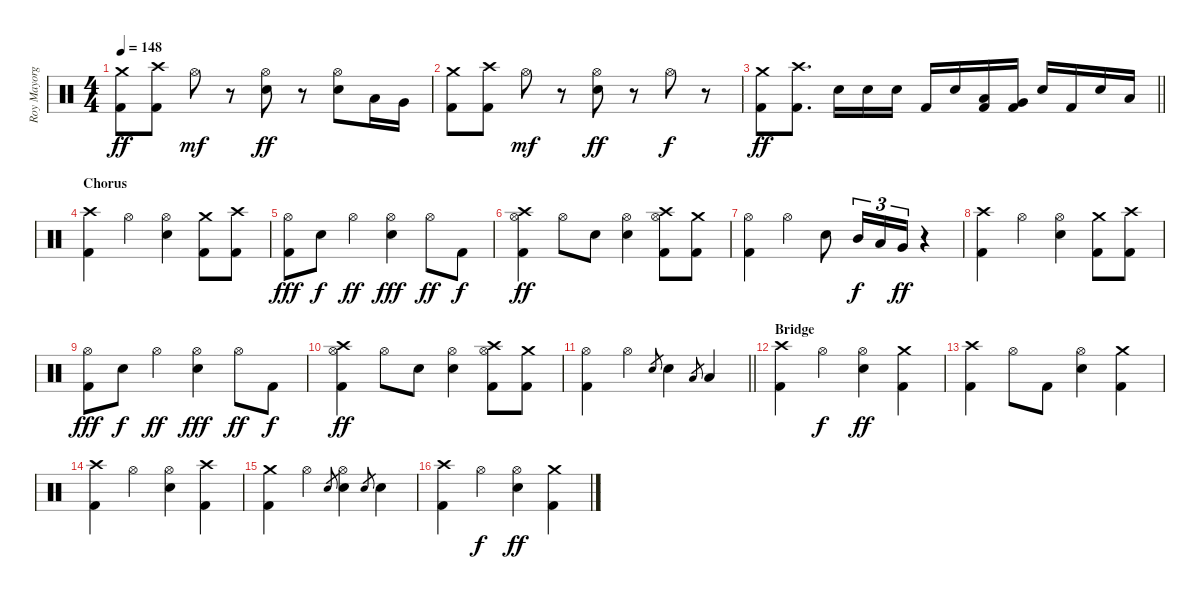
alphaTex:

\track ("Roy Mayorga (Drums)" "Roy Mayorg") {instrument percussion}
\staff {score}
\articulation defaults
\ts (4 4)
\tempo 148
\clef neutral
\ks c
("Crash medium (hit)" "Kick (hit) 2").8{dy ff} ("Crash high (hit)" "Kick (hit) 2").8 "Hi-Hat (open)".8{dy mf} r.8 ("Hi-Hat (open)" "Electric Snare (hit)").8{dy ff} r.8 ("Hi-Hat (open)" "Electric Snare (hit)").8 "Low Tom (hit)".16 "Very Low Tom (hit)".16 |
("Crash medium (hit)" "Kick (hit) 2").8 ("Crash high (hit)" "Kick (hit) 2").8 "Hi-Hat (open)".8{dy mf} r.8 ("Hi-Hat (open)" "Electric Snare (hit)").8{dy ff} r.8 "Hi-Hat (open)".8{dy f} r.8 |
\barLineRight lightlight
("Crash medium (hit)" "Kick (hit) 2").8{dy ff} ("Crash high (hit)" "Kick (hit) 2").8{d} "Electric Snare (hit)".16 "Electric Snare (hit)".16 "Electric Snare (hit)".16 "Kick (hit) 2".16 "Electric Snare (hit)".16 ("Low Tom (hit)" "Kick (hit) 2").16 ("Very Low Tom (hit)" "Kick (hit) 2").16 "Electric Snare (hit)".16 "Kick (hit) 2".16 "Electric Snare (hit)".16 "Low Tom (hit)".16 |
\section ("" "Chorus")
("Crash high (hit)" "Kick (hit) 2").4 "Hi-Hat (open)".4 ("Hi-Hat (open)" "Electric Snare (hit)").4 ("Crash medium (hit)" "Kick (hit) 2").8 ("Crash high (hit)" "Kick (hit) 2").8 |
("Hi-Hat (open)" "Kick (hit) 2").8{dy fff} "Electric Snare (hit)".8{dy f} "Hi-Hat (open)".4{dy ff} ("Hi-Hat (open)" "Electric Snare (hit)").4{dy fff} "Hi-Hat (open)".8{dy ff} "Kick (hit) 2".8{dy f} |
("Crash high (hit)" "Hi-Hat (open)" "Kick (hit) 2").4{dy ff} "Hi-Hat (open)".8 "Electric Snare (hit)".8 ("Hi-Hat (open)" "Electric Snare (hit)").4 ("Crash high (hit)" "Hi-Hat (open)" "Kick (hit) 2").8 ("Crash medium (hit)" "Kick (hit) 2").8 |
("Hi-Hat (open)" "Kick (hit) 2").4 "Hi-Hat (open)".4 "Electric Snare (hit)".8 "Mid Tom (hit)".16{tu (3 2) dy f} "Low Tom (hit)".16{tu (3 2)} "Very Low Tom (hit)".16{tu (3 2) dy ff} r.4 |
("Crash high (hit)" "Kick (hit) 2").4 "Hi-Hat (open)".4 ("Hi-Hat (open)" "Electric Snare (hit)").4 ("Crash medium (hit)" "Kick (hit) 2").8 ("Crash high (hit)" "Kick (hit) 2").8 |
("Hi-Hat (open)" "Kick (hit) 2").8{dy fff} "Electric Snare (hit)".8{dy f} "Hi-Hat (open)".4{dy ff} ("Hi-Hat (open)" "Electric Snare (hit)").4{dy fff} "Hi-Hat (open)".8{dy ff} "Kick (hit) 2".8{dy f} |
("Crash high (hit)" "Hi-Hat (open)" "Kick (hit) 2").4{dy ff} "Hi-Hat (open)".8 "Electric Snare (hit)".8 ("Hi-Hat (open)" "Electric Snare (hit)").4 ("Crash high (hit)" "Hi-Hat (open)" "Kick (hit) 2").8 ("Crash medium (hit)" "Kick (hit) 2").8 |
\barLineRight lightlight
("Hi-Hat (open)" "Kick (hit) 2").4 "Hi-Hat (open)".4 "Electric Snare (hit)".8{gr} "Electric Snare (hit)".4 "Low Tom (hit)".8{gr} "Low Tom (hit)".4 |
\section ("" "Bridge")
("Crash high (hit)" "Kick (hit) 2").4 "Hi-Hat (open)".4{dy f} ("Hi-Hat (open)" "Electric Snare (hit)").4{dy ff} ("Crash medium (hit)" "Kick (hit) 2").4 |
("Crash high (hit)" "Kick (hit) 2").4 "Hi-Hat (open)".8 "Kick (hit) 2".8 ("Hi-Hat (open)" "Electric Snare (hit)").4 ("Crash medium (hit)" "Kick (hit) 2").4 |
("Crash high (hit)" "Kick (hit) 2").4 "Hi-Hat (open)".4 ("Hi-Hat (open)" "Electric Snare (hit)").4 ("Crash high (hit)" "Kick (hit) 2").4 |
("Crash medium (hit)" "Kick (hit) 2").4 "Hi-Hat (open)".4 "Electric Snare (hit)".8{gr} ("Hi-Hat (open)" "Electric Snare (hit)").4 "Electric Snare (hit)".8{gr} "Electric Snare (hit)".4 |
("Crash high (hit)" "Kick (hit) 2").4 "Hi-Hat (open)".4{dy f} ("Hi-Hat (open)" "Electric Snare (hit)").4{dy ff} ("Crash medium (hit)" "Kick (hit) 2").4
